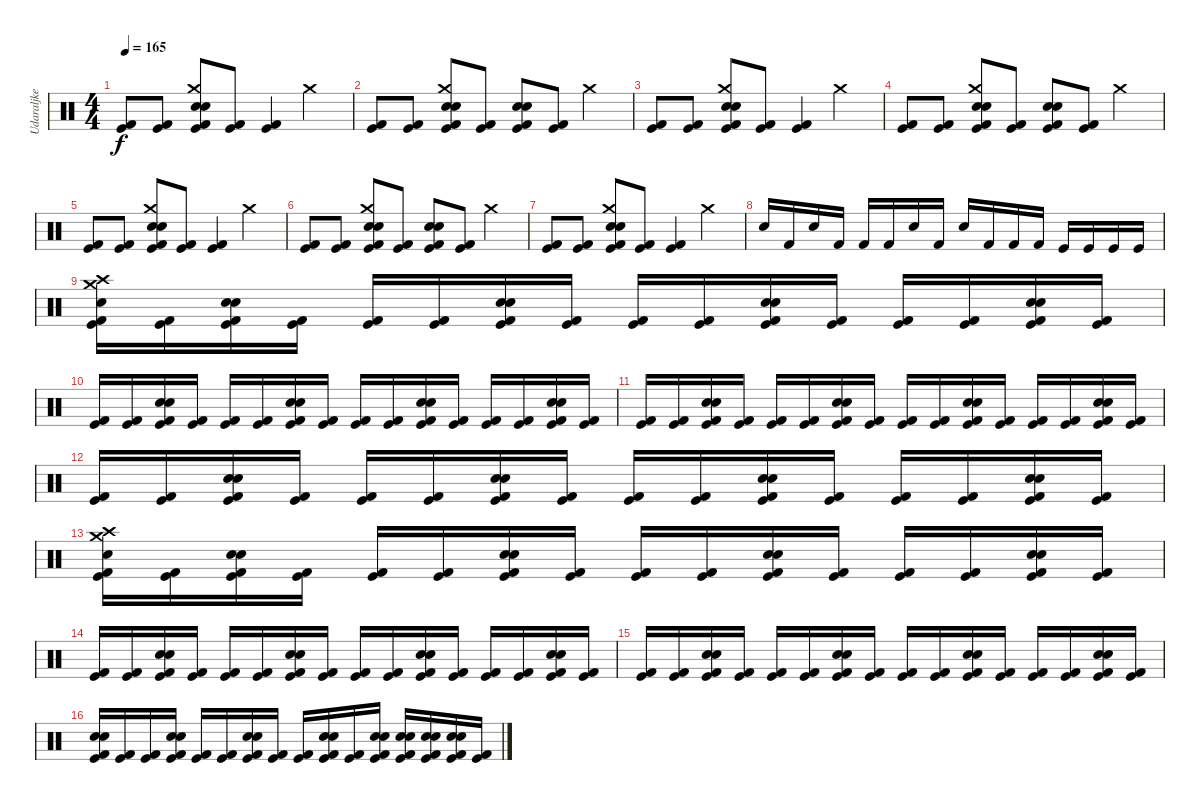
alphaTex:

\track ("Udaraljke" "Udaraljke") {instrument percussion}
\staff {score}
\articulation defaults
\ts (4 4)
\tempo 165
\clef neutral
\ks c
("Kick (hit) 2" "Kick (hit)").8{dy f} ("Kick (hit) 2" "Kick (hit)").8 ("Crash medium (hit)" "Snare (hit) 2" "Snare (hit) 2" "Kick (hit) 2" "Kick (hit)").8 ("Kick (hit) 2" "Kick (hit)").8 ("Kick (hit) 2" "Kick (hit)").4 "Crash medium (hit)".4 |
("Kick (hit) 2" "Kick (hit)").8 ("Kick (hit) 2" "Kick (hit)").8 ("Crash medium (hit)" "Snare (hit) 2" "Snare (hit) 2" "Kick (hit) 2" "Kick (hit)").8 ("Kick (hit) 2" "Kick (hit)").8 ("Snare (hit) 2" "Snare (hit) 2" "Kick (hit) 2" "Kick (hit)").8 ("Kick (hit) 2" "Kick (hit)").8 "Crash medium (hit)".4 |
("Kick (hit) 2" "Kick (hit)").8 ("Kick (hit) 2" "Kick (hit)").8 ("Crash medium (hit)" "Snare (hit) 2" "Snare (hit) 2" "Kick (hit) 2" "Kick (hit)").8 ("Kick (hit) 2" "Kick (hit)").8 ("Kick (hit) 2" "Kick (hit)").4 "Crash medium (hit)".4 |
("Kick (hit) 2" "Kick (hit)").8 ("Kick (hit) 2" "Kick (hit)").8 ("Crash medium (hit)" "Snare (hit) 2" "Snare (hit) 2" "Kick (hit) 2" "Kick (hit)").8 ("Kick (hit) 2" "Kick (hit)").8 ("Snare (hit) 2" "Snare (hit) 2" "Kick (hit) 2" "Kick (hit)").8 ("Kick (hit) 2" "Kick (hit)").8 "Crash medium (hit)".4 |
("Kick (hit) 2" "Kick (hit)").8 ("Kick (hit) 2" "Kick (hit)").8 ("Crash medium (hit)" "Snare (hit) 2" "Snare (hit) 2" "Kick (hit) 2" "Kick (hit)").8 ("Kick (hit) 2" "Kick (hit)").8 ("Kick (hit) 2" "Kick (hit)").4 "Crash medium (hit)".4 |
("Kick (hit) 2" "Kick (hit)").8 ("Kick (hit) 2" "Kick (hit)").8 ("Crash medium (hit)" "Snare (hit) 2" "Snare (hit) 2" "Kick (hit) 2" "Kick (hit)").8 ("Kick (hit) 2" "Kick (hit)").8 ("Snare (hit) 2" "Snare (hit) 2" "Kick (hit) 2" "Kick (hit)").8 ("Kick (hit) 2" "Kick (hit)").8 "Crash medium (hit)".4 |
("Kick (hit) 2" "Kick (hit)").8 ("Kick (hit) 2" "Kick (hit)").8 ("Crash medium (hit)" "Snare (hit) 2" "Snare (hit) 2" "Kick (hit) 2" "Kick (hit)").8 ("Kick (hit) 2" "Kick (hit)").8 ("Kick (hit) 2" "Kick (hit)").4 "Crash medium (hit)".4 |
"Snare (hit) 2".16 "Kick (hit) 2".16 "Snare (hit) 2".16 "Kick (hit) 2".16 "Kick (hit) 2".16 "Kick (hit) 2".16 "Snare (hit) 2".16 "Kick (hit) 2".16 "Snare (hit) 2".16 "Kick (hit) 2".16 "Kick (hit) 2".16 "Kick (hit) 2".16 "Kick (hit)".16 "Kick (hit)".16 "Kick (hit)".16 "Kick (hit)".16 |
("Crash medium (hit)" "Crash high (hit)" "Snare (hit) 2" "Kick (hit) 2" "Kick (hit)").16 ("Kick (hit) 2" "Kick (hit)").16 ("Snare (hit) 2" "Snare (hit) 2" "Kick (hit) 2" "Kick (hit)").16 ("Kick (hit) 2" "Kick (hit)").16 ("Kick (hit) 2" "Kick (hit)").16 ("Kick (hit) 2" "Kick (hit)").16 ("Snare (hit) 2" "Snare (hit) 2" "Kick (hit) 2" "Kick (hit)").16 ("Kick (hit) 2" "Kick (hit)").16 ("Kick (hit) 2" "Kick (hit)").16 ("Kick (hit) 2" "Kick (hit)").16 ("Snare (hit) 2" "Snare (hit) 2" "Kick (hit) 2" "Kick (hit)").16 ("Kick (hit) 2" "Kick (hit)").16 ("Kick (hit) 2" "Kick (hit)").16 ("Kick (hit) 2" "Kick (hit)").16 ("Snare (hit) 2" "Snare (hit) 2" "Kick (hit) 2" "Kick (hit)").16 ("Kick (hit) 2" "Kick (hit)").16 |
("Kick (hit) 2" "Kick (hit)").16 ("Kick (hit) 2" "Kick (hit)").16 ("Snare (hit) 2" "Snare (hit) 2" "Kick (hit) 2" "Kick (hit)").16 ("Kick (hit) 2" "Kick (hit)").16 ("Kick (hit) 2" "Kick (hit)").16 ("Kick (hit) 2" "Kick (hit)").16 ("Snare (hit) 2" "Snare (hit) 2" "Kick (hit) 2" "Kick (hit)").16 ("Kick (hit) 2" "Kick (hit)").16 ("Kick (hit) 2" "Kick (hit)").16 ("Kick (hit) 2" "Kick (hit)").16 ("Snare (hit) 2" "Snare (hit) 2" "Kick (hit) 2" "Kick (hit)").16 ("Kick (hit) 2" "Kick (hit)").16 ("Kick (hit) 2" "Kick (hit)").16 ("Kick (hit) 2" "Kick (hit)").16 ("Snare (hit) 2" "Snare (hit) 2" "Kick (hit) 2" "Kick (hit)").16 ("Kick (hit) 2" "Kick (hit)").16 |
("Kick (hit) 2" "Kick (hit)").16 ("Kick (hit) 2" "Kick (hit)").16 ("Snare (hit) 2" "Snare (hit) 2" "Kick (hit) 2" "Kick (hit)").16 ("Kick (hit) 2" "Kick (hit)").16 ("Kick (hit) 2" "Kick (hit)").16 ("Kick (hit) 2" "Kick (hit)").16 ("Snare (hit) 2" "Snare (hit) 2" "Kick (hit) 2" "Kick (hit)").16 ("Kick (hit) 2" "Kick (hit)").16 ("Kick (hit) 2" "Kick (hit)").16 ("Kick (hit) 2" "Kick (hit)").16 ("Snare (hit) 2" "Snare (hit) 2" "Kick (hit) 2" "Kick (hit)").16 ("Kick (hit) 2" "Kick (hit)").16 ("Kick (hit) 2" "Kick (hit)").16 ("Kick (hit) 2" "Kick (hit)").16 ("Snare (hit) 2" "Snare (hit) 2" "Kick (hit) 2" "Kick (hit)").16 ("Kick (hit) 2" "Kick (hit)").16 |
("Kick (hit) 2" "Kick (hit)").16 ("Kick (hit) 2" "Kick (hit)").16 ("Snare (hit) 2" "Snare (hit) 2" "Kick (hit) 2" "Kick (hit)").16 ("Kick (hit) 2" "Kick (hit)").16 ("Kick (hit) 2" "Kick (hit)").16 ("Kick (hit) 2" "Kick (hit)").16 ("Snare (hit) 2" "Snare (hit) 2" "Kick (hit) 2" "Kick (hit)").16 ("Kick (hit) 2" "Kick (hit)").16 ("Kick (hit) 2" "Kick (hit)").16 ("Kick (hit) 2" "Kick (hit)").16 ("Snare (hit) 2" "Snare (hit) 2" "Kick (hit) 2" "Kick (hit)").16 ("Kick (hit) 2" "Kick (hit)").16 ("Kick (hit) 2" "Kick (hit)").16 ("Kick (hit) 2" "Kick (hit)").16 ("Snare (hit) 2" "Snare (hit) 2" "Kick (hit) 2" "Kick (hit)").16 ("Kick (hit) 2" "Kick (hit)").16 |
("Crash medium (hit)" "Crash high (hit)" "Snare (hit) 2" "Kick (hit) 2" "Kick (hit)").16 ("Kick (hit) 2" "Kick (hit)").16 ("Snare (hit) 2" "Snare (hit) 2" "Kick (hit) 2" "Kick (hit)").16 ("Kick (hit) 2" "Kick (hit)").16 ("Kick (hit) 2" "Kick (hit)").16 ("Kick (hit) 2" "Kick (hit)").16 ("Snare (hit) 2" "Snare (hit) 2" "Kick (hit) 2" "Kick (hit)").16 ("Kick (hit) 2" "Kick (hit)").16 ("Kick (hit) 2" "Kick (hit)").16 ("Kick (hit) 2" "Kick (hit)").16 ("Snare (hit) 2" "Snare (hit) 2" "Kick (hit) 2" "Kick (hit)").16 ("Kick (hit) 2" "Kick (hit)").16 ("Kick (hit) 2" "Kick (hit)").16 ("Kick (hit) 2" "Kick (hit)").16 ("Snare (hit) 2" "Snare (hit) 2" "Kick (hit) 2" "Kick (hit)").16 ("Kick (hit) 2" "Kick (hit)").16 |
("Kick (hit) 2" "Kick (hit)").16 ("Kick (hit) 2" "Kick (hit)").16 ("Snare (hit) 2" "Snare (hit) 2" "Kick (hit) 2" "Kick (hit)").16 ("Kick (hit) 2" "Kick (hit)").16 ("Kick (hit) 2" "Kick (hit)").16 ("Kick (hit) 2" "Kick (hit)").16 ("Snare (hit) 2" "Snare (hit) 2" "Kick (hit) 2" "Kick (hit)").16 ("Kick (hit) 2" "Kick (hit)").16 ("Kick (hit) 2" "Kick (hit)").16 ("Kick (hit) 2" "Kick (hit)").16 ("Snare (hit) 2" "Snare (hit) 2" "Kick (hit) 2" "Kick (hit)").16 ("Kick (hit) 2" "Kick (hit)").16 ("Kick (hit) 2" "Kick (hit)").16 ("Kick (hit) 2" "Kick (hit)").16 ("Snare (hit) 2" "Snare (hit) 2" "Kick (hit) 2" "Kick (hit)").16 ("Kick (hit) 2" "Kick (hit)").16 |
("Kick (hit) 2" "Kick (hit)").16 ("Kick (hit) 2" "Kick (hit)").16 ("Snare (hit) 2" "Snare (hit) 2" "Kick (hit) 2" "Kick (hit)").16 ("Kick (hit) 2" "Kick (hit)").16 ("Kick (hit) 2" "Kick (hit)").16 ("Kick (hit) 2" "Kick (hit)").16 ("Snare (hit) 2" "Snare (hit) 2" "Kick (hit) 2" "Kick (hit)").16 ("Kick (hit) 2" "Kick (hit)").16 ("Kick (hit) 2" "Kick (hit)").16 ("Kick (hit) 2" "Kick (hit)").16 ("Snare (hit) 2" "Snare (hit) 2" "Kick (hit) 2" "Kick (hit)").16 ("Kick (hit) 2" "Kick (hit)").16 ("Kick (hit) 2" "Kick (hit)").16 ("Kick (hit) 2" "Kick (hit)").16 ("Snare (hit) 2" "Snare (hit) 2" "Kick (hit) 2" "Kick (hit)").16 ("Kick (hit) 2" "Kick (hit)").16 |
("Snare (hit) 2" "Snare (hit) 2" "Kick (hit) 2" "Kick (hit)").16 ("Kick (hit) 2" "Kick (hit)").16 ("Kick (hit) 2" "Kick (hit)").16 ("Snare (hit) 2" "Snare (hit) 2" "Kick (hit) 2" "Kick (hit)").16 ("Kick (hit) 2" "Kick (hit)").16 ("Kick (hit) 2" "Kick (hit)").16 ("Snare (hit) 2" "Snare (hit) 2" "Kick (hit) 2" "Kick (hit)").16 ("Kick (hit) 2" "Kick (hit)").16 ("Kick (hit) 2" "Kick (hit)").16 ("Snare (hit) 2" "Snare (hit) 2" "Kick (hit) 2" "Kick (hit)").16 ("Kick (hit) 2" "Kick (hit)").16 ("Snare (hit) 2" "Snare (hit) 2" "Kick (hit) 2" "Kick (hit)").16 ("Snare (hit) 2" "Snare (hit) 2" "Kick (hit) 2" "Kick (hit)").16 ("Snare (hit) 2" "Snare (hit) 2" "Kick (hit) 2" "Kick (hit)").16 ("Snare (hit) 2" "Snare (hit) 2" "Kick (hit) 2" "Kick (hit)").16 ("Kick (hit) 2" "Kick (hit)").16
